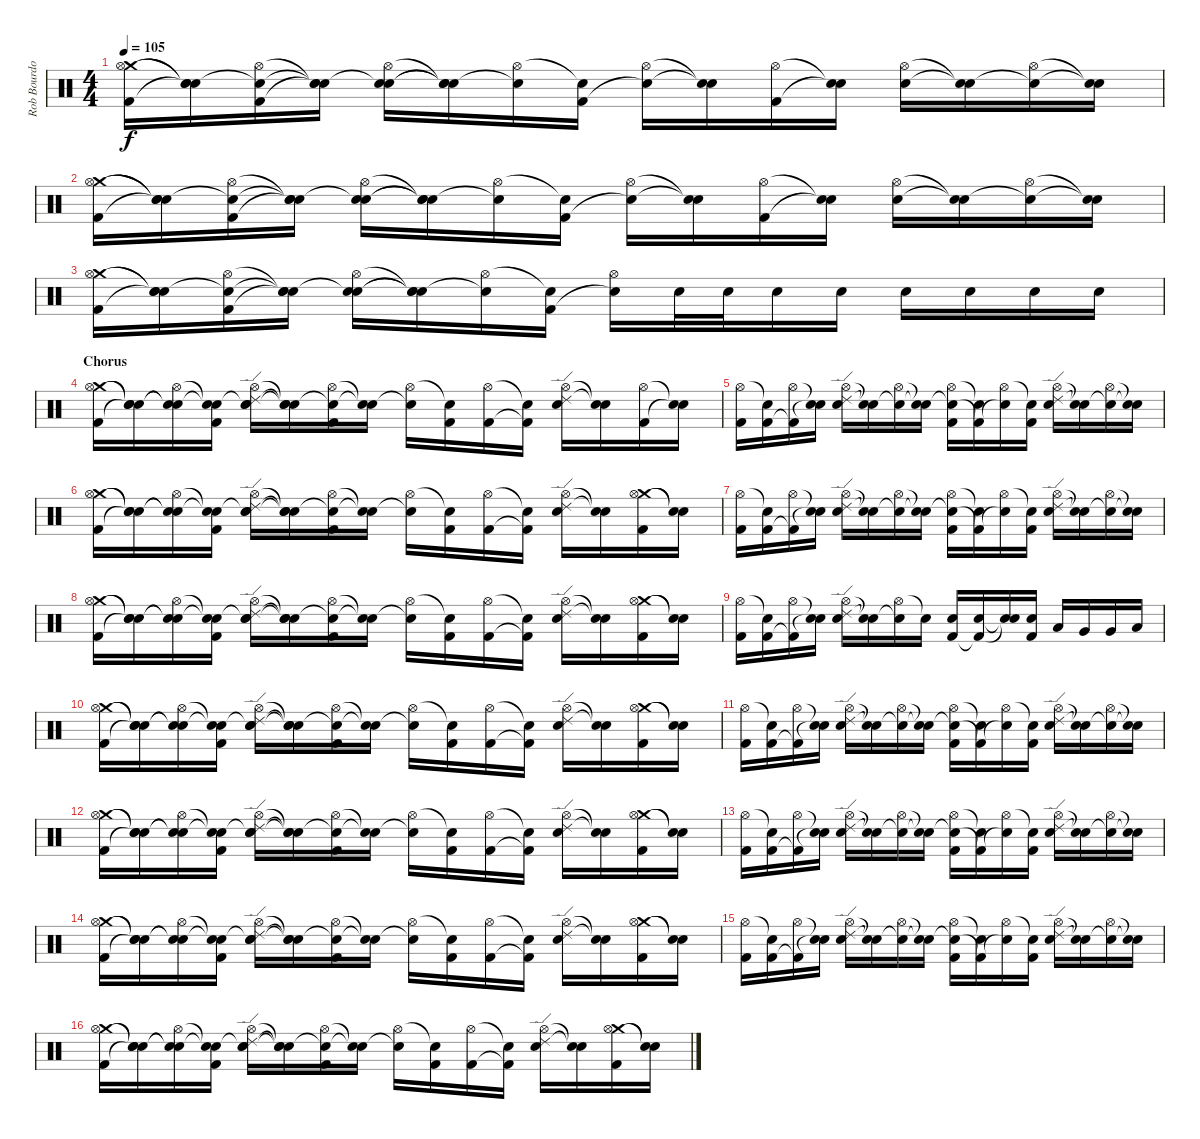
\track ("Rob Bourdon" "Rob Bourdo") {instrument percussion}
\staff {score}
\articulation defaults
\ts (4 4)
\tempo 105
\clef neutral
\ks c
("Crash medium (hit)" "Hi-Hat (open)" "Kick (hit) 2").16{dy f} ("Snare (hit)"{t} "Snare (hit)"{t} "Snare (hit)"{t}).16 ("Snare (hit)"{t} "Hi-Hat (open)" "Kick (hit) 2").16 ("Snare (hit)"{t} "Snare (hit)"{t} "Snare (hit)"{t}).16 ("Snare (hit)"{t} "Hi-Hat (open)" "Electric Snare (hit)").16 ("Snare (hit)"{t} "Snare (hit)"{t} "Snare (hit)"{t}).16 ("Hi-Hat (open)" "Snare (hit)"{t}).16 ("Snare (hit)"{t} "Kick (hit) 2").16 ("Hi-Hat (open)" "Snare (hit)"{t}).16 ("Snare (hit)"{t} "Snare (hit)"{t}).16 ("Hi-Hat (open)" "Kick (hit) 2").16 ("Snare (hit)"{t} "Snare (hit)"{t}).16 ("Hi-Hat (open)" "Electric Snare (hit)").16 ("Snare (hit)"{t} "Snare (hit)"{t}).16 ("Hi-Hat (open)" "Snare (hit)"{t}).16 ("Snare (hit)"{t} "Snare (hit)"{t}).16 |
("Crash medium (hit)" "Hi-Hat (open)" "Kick (hit) 2").16 ("Snare (hit)"{t} "Snare (hit)"{t} "Snare (hit)"{t}).16 ("Snare (hit)"{t} "Hi-Hat (open)" "Kick (hit) 2").16 ("Snare (hit)"{t} "Snare (hit)"{t} "Snare (hit)"{t}).16 ("Snare (hit)"{t} "Hi-Hat (open)" "Electric Snare (hit)").16 ("Snare (hit)"{t} "Snare (hit)"{t} "Snare (hit)"{t}).16 ("Hi-Hat (open)" "Snare (hit)"{t}).16 ("Snare (hit)"{t} "Kick (hit) 2").16 ("Hi-Hat (open)" "Snare (hit)"{t}).16 ("Snare (hit)"{t} "Snare (hit)"{t}).16 ("Hi-Hat (open)" "Kick (hit) 2").16 ("Snare (hit)"{t} "Snare (hit)"{t}).16 ("Hi-Hat (open)" "Electric Snare (hit)").16 ("Snare (hit)"{t} "Snare (hit)"{t}).16 ("Hi-Hat (open)" "Snare (hit)"{t}).16 ("Snare (hit)"{t} "Snare (hit)"{t}).16 |
("Crash medium (hit)" "Hi-Hat (open)" "Kick (hit) 2").16 ("Snare (hit)"{t} "Snare (hit)"{t} "Snare (hit)"{t}).16 ("Snare (hit)"{t} "Hi-Hat (open)" "Kick (hit) 2").16 ("Snare (hit)"{t} "Snare (hit)"{t} "Snare (hit)"{t}).16 ("Snare (hit)"{t} "Hi-Hat (open)" "Electric Snare (hit)").16 ("Snare (hit)"{t} "Snare (hit)"{t} "Snare (hit)"{t}).16 ("Hi-Hat (open)" "Snare (hit)"{t}).16 ("Snare (hit)"{t} "Kick (hit) 2").16 ("Hi-Hat (open)" "Snare (hit)"{t}).16 "Electric Snare (hit)".32 "Electric Snare (hit)".32 "Electric Snare (hit)".16 "Electric Snare (hit)".16 "Electric Snare (hit)".16 "Electric Snare (hit)".16 "Electric Snare (hit)".16 "Electric Snare (hit)".16 |
\section ("" "Chorus")
("Crash medium (hit)" "Hi-Hat (open)" "Kick (hit) 2").16 ("Snare (hit)"{t} "Snare (hit)"{t} "Snare (hit)"{t}).16 ("Snare (hit)"{t} "Hi-Hat (open)" "Snare (hit)"{t}).16 ("Snare (hit)"{t} "Snare (hit)"{t} "Kick (hit) 2").16 ("Snare (hit)"{t} "Hi-Hat (open)" "Ride (edge) 2" "Electric Snare (hit)").16 ("Snare (hit)"{t} "Snare (hit)"{t} "Snare (hit)"{t}).16 ("Snare (hit)"{t} "Hi-Hat (open)" "Kick (hit) 2").16 ("Snare (hit)"{t} "Snare (hit)"{t}).16 ("Hi-Hat (open)" "Snare (hit)"{t}).16 ("Snare (hit)"{t} "Kick (hit) 2").16 ("Hi-Hat (open)" "Kick (hit) 2").16 ("Snare (hit)"{t} "Kick (hit) 2"{t}).16 ("Hi-Hat (open)" "Ride (edge) 2" "Electric Snare (hit)").16 ("Snare (hit)"{t} "Snare (hit)"{t}).16 ("Hi-Hat (open)" "Kick (hit) 2").16 ("Snare (hit)"{t} "Snare (hit)"{t}).16 |
("Hi-Hat (open)" "Kick (hit) 2").16 ("Snare (hit)"{t} "Kick (hit) 2").16 ("Hi-Hat (open)" "Kick (hit) 2"{t}).16 ("Snare (hit)"{t} "Snare (hit)"{t}).16 ("Hi-Hat (open)" "Ride (edge) 2" "Electric Snare (hit)").16 ("Snare (hit)"{t} "Snare (hit)"{t}).16 ("Hi-Hat (open)" "Snare (hit)"{t}).16 ("Snare (hit)"{t} "Snare (hit)"{t}).16 ("Hi-Hat (open)" "Snare (hit)"{t} "Kick (hit) 2").16 ("Snare (hit)"{t} "Kick (hit) 2"{t}).16 ("Hi-Hat (open)" "Snare (hit)"{t}).16 ("Snare (hit)"{t} "Kick (hit) 2").16 ("Hi-Hat (open)" "Ride (edge) 2" "Electric Snare (hit)").16 ("Snare (hit)"{t} "Snare (hit)"{t}).16 ("Hi-Hat (open)" "Snare (hit)"{t}).16 ("Snare (hit)"{t} "Snare (hit)"{t}).16 |
("Crash medium (hit)" "Hi-Hat (open)" "Kick (hit) 2").16 ("Snare (hit)"{t} "Snare (hit)"{t} "Snare (hit)"{t}).16 ("Snare (hit)"{t} "Hi-Hat (open)" "Snare (hit)"{t}).16 ("Snare (hit)"{t} "Snare (hit)"{t} "Kick (hit) 2").16 ("Snare (hit)"{t} "Hi-Hat (open)" "Ride (edge) 2" "Electric Snare (hit)").16 ("Snare (hit)"{t} "Snare (hit)"{t} "Snare (hit)"{t}).16 ("Snare (hit)"{t} "Hi-Hat (open)" "Kick (hit) 2").16 ("Snare (hit)"{t} "Snare (hit)"{t}).16 ("Hi-Hat (open)" "Snare (hit)"{t}).16 ("Snare (hit)"{t} "Kick (hit) 2").16 ("Hi-Hat (open)" "Kick (hit) 2").16 ("Snare (hit)"{t} "Kick (hit) 2"{t}).16 ("Hi-Hat (open)" "Ride (edge) 2" "Electric Snare (hit)").16 ("Snare (hit)"{t} "Snare (hit)"{t}).16 ("Crash medium (hit)" "Hi-Hat (open)" "Kick (hit) 2").16 ("Snare (hit)"{t} "Snare (hit)"{t}).16 |
("Hi-Hat (open)" "Kick (hit) 2").16 ("Snare (hit)"{t} "Kick (hit) 2").16 ("Hi-Hat (open)" "Kick (hit) 2"{t}).16 ("Snare (hit)"{t} "Snare (hit)"{t}).16 ("Hi-Hat (open)" "Ride (edge) 2" "Electric Snare (hit)").16 ("Snare (hit)"{t} "Snare (hit)"{t}).16 ("Hi-Hat (open)" "Snare (hit)"{t}).16 ("Snare (hit)"{t} "Snare (hit)"{t}).16 ("Hi-Hat (open)" "Snare (hit)"{t} "Kick (hit) 2").16 ("Snare (hit)"{t} "Kick (hit) 2"{t}).16 ("Hi-Hat (open)" "Snare (hit)"{t}).16 ("Snare (hit)"{t} "Kick (hit) 2").16 ("Hi-Hat (open)" "Ride (edge) 2" "Electric Snare (hit)").16 ("Snare (hit)"{t} "Snare (hit)"{t}).16 ("Hi-Hat (open)" "Snare (hit)"{t}).16 ("Snare (hit)"{t} "Snare (hit)"{t}).16 |
("Crash medium (hit)" "Hi-Hat (open)" "Kick (hit) 2").16 ("Snare (hit)"{t} "Snare (hit)"{t} "Snare (hit)"{t}).16 ("Snare (hit)"{t} "Hi-Hat (open)" "Snare (hit)"{t}).16 ("Snare (hit)"{t} "Snare (hit)"{t} "Kick (hit) 2").16 ("Snare (hit)"{t} "Hi-Hat (open)" "Ride (edge) 2" "Electric Snare (hit)").16 ("Snare (hit)"{t} "Snare (hit)"{t} "Snare (hit)"{t}).16 ("Snare (hit)"{t} "Hi-Hat (open)" "Kick (hit) 2").16 ("Snare (hit)"{t} "Snare (hit)"{t}).16 ("Hi-Hat (open)" "Snare (hit)"{t}).16 ("Snare (hit)"{t} "Kick (hit) 2").16 ("Hi-Hat (open)" "Kick (hit) 2").16 ("Snare (hit)"{t} "Kick (hit) 2"{t}).16 ("Hi-Hat (open)" "Ride (edge) 2" "Electric Snare (hit)").16 ("Snare (hit)"{t} "Snare (hit)"{t}).16 ("Crash medium (hit)" "Hi-Hat (open)" "Kick (hit) 2").16 ("Snare (hit)"{t} "Snare (hit)"{t}).16 |
("Hi-Hat (open)" "Kick (hit) 2").16 ("Snare (hit)"{t} "Kick (hit) 2").16 ("Hi-Hat (open)" "Kick (hit) 2"{t}).16 ("Snare (hit)"{t} "Snare (hit)"{t}).16 ("Hi-Hat (open)" "Ride (edge) 2" "Electric Snare (hit)").16 ("Snare (hit)"{t} "Snare (hit)"{t}).16 ("Hi-Hat (open)" "Snare (hit)"{t}).16 "Snare (hit)"{t}.16 ("Electric Snare (hit)" "Kick (hit) 2").16 ("Electric Snare (hit)" "Kick (hit) 2"{t}).16 ("Electric Snare (hit)"{t} "Snare (hit)"{t}).16 ("Electric Snare (hit)" "Kick (hit) 2").16 "Low Tom (hit)".16 "Very Low Tom (hit)".16 "Very Low Tom (hit)".16 "Low Floor Tom (hit)".16 |
("Crash medium (hit)" "Hi-Hat (open)" "Kick (hit) 2").16 ("Snare (hit)"{t} "Snare (hit)"{t} "Snare (hit)"{t}).16 ("Snare (hit)"{t} "Hi-Hat (open)" "Snare (hit)"{t}).16 ("Snare (hit)"{t} "Snare (hit)"{t} "Kick (hit) 2").16 ("Snare (hit)"{t} "Hi-Hat (open)" "Ride (edge) 2" "Electric Snare (hit)").16 ("Snare (hit)"{t} "Snare (hit)"{t} "Snare (hit)"{t}).16 ("Snare (hit)"{t} "Hi-Hat (open)" "Kick (hit) 2").16 ("Snare (hit)"{t} "Snare (hit)"{t}).16 ("Hi-Hat (open)" "Snare (hit)"{t}).16 ("Snare (hit)"{t} "Kick (hit) 2").16 ("Hi-Hat (open)" "Kick (hit) 2").16 ("Snare (hit)"{t} "Kick (hit) 2"{t}).16 ("Hi-Hat (open)" "Ride (edge) 2" "Electric Snare (hit)").16 ("Snare (hit)"{t} "Snare (hit)"{t}).16 ("Crash medium (hit)" "Hi-Hat (open)" "Kick (hit) 2").16 ("Snare (hit)"{t} "Snare (hit)"{t}).16 |
("Hi-Hat (open)" "Kick (hit) 2").16 ("Snare (hit)"{t} "Kick (hit) 2").16 ("Hi-Hat (open)" "Kick (hit) 2"{t}).16 ("Snare (hit)"{t} "Snare (hit)"{t}).16 ("Hi-Hat (open)" "Ride (edge) 2" "Electric Snare (hit)").16 ("Snare (hit)"{t} "Snare (hit)"{t}).16 ("Hi-Hat (open)" "Snare (hit)"{t}).16 ("Snare (hit)"{t} "Snare (hit)"{t}).16 ("Hi-Hat (open)" "Snare (hit)"{t} "Kick (hit) 2").16 ("Snare (hit)"{t} "Kick (hit) 2"{t}).16 ("Hi-Hat (open)" "Snare (hit)"{t}).16 ("Snare (hit)"{t} "Kick (hit) 2").16 ("Hi-Hat (open)" "Ride (edge) 2" "Electric Snare (hit)").16 ("Snare (hit)"{t} "Snare (hit)"{t}).16 ("Hi-Hat (open)" "Snare (hit)"{t}).16 ("Snare (hit)"{t} "Snare (hit)"{t}).16 |
("Crash medium (hit)" "Hi-Hat (open)" "Kick (hit) 2").16 ("Snare (hit)"{t} "Snare (hit)"{t} "Snare (hit)"{t}).16 ("Snare (hit)"{t} "Hi-Hat (open)" "Snare (hit)"{t}).16 ("Snare (hit)"{t} "Snare (hit)"{t} "Kick (hit) 2").16 ("Snare (hit)"{t} "Hi-Hat (open)" "Ride (edge) 2" "Electric Snare (hit)").16 ("Snare (hit)"{t} "Snare (hit)"{t} "Snare (hit)"{t}).16 ("Snare (hit)"{t} "Hi-Hat (open)" "Kick (hit) 2").16 ("Snare (hit)"{t} "Snare (hit)"{t}).16 ("Hi-Hat (open)" "Snare (hit)"{t}).16 ("Snare (hit)"{t} "Kick (hit) 2").16 ("Hi-Hat (open)" "Kick (hit) 2").16 ("Snare (hit)"{t} "Kick (hit) 2"{t}).16 ("Hi-Hat (open)" "Ride (edge) 2" "Electric Snare (hit)").16 ("Snare (hit)"{t} "Snare (hit)"{t}).16 ("Crash medium (hit)" "Hi-Hat (open)" "Kick (hit) 2").16 ("Snare (hit)"{t} "Snare (hit)"{t}).16 |
("Hi-Hat (open)" "Kick (hit) 2").16 ("Snare (hit)"{t} "Kick (hit) 2").16 ("Hi-Hat (open)" "Kick (hit) 2"{t}).16 ("Snare (hit)"{t} "Snare (hit)"{t}).16 ("Hi-Hat (open)" "Ride (edge) 2" "Electric Snare (hit)").16 ("Snare (hit)"{t} "Snare (hit)"{t}).16 ("Hi-Hat (open)" "Snare (hit)"{t}).16 ("Snare (hit)"{t} "Snare (hit)"{t}).16 ("Hi-Hat (open)" "Snare (hit)"{t} "Kick (hit) 2").16 ("Snare (hit)"{t} "Kick (hit) 2"{t}).16 ("Hi-Hat (open)" "Snare (hit)"{t}).16 ("Snare (hit)"{t} "Kick (hit) 2").16 ("Hi-Hat (open)" "Ride (edge) 2" "Electric Snare (hit)").16 ("Snare (hit)"{t} "Snare (hit)"{t}).16 ("Hi-Hat (open)" "Snare (hit)"{t}).16 ("Snare (hit)"{t} "Snare (hit)"{t}).16 |
("Crash medium (hit)" "Hi-Hat (open)" "Kick (hit) 2").16 ("Snare (hit)"{t} "Snare (hit)"{t} "Snare (hit)"{t}).16 ("Snare (hit)"{t} "Hi-Hat (open)" "Snare (hit)"{t}).16 ("Snare (hit)"{t} "Snare (hit)"{t} "Kick (hit) 2").16 ("Snare (hit)"{t} "Hi-Hat (open)" "Ride (edge) 2" "Electric Snare (hit)").16 ("Snare (hit)"{t} "Snare (hit)"{t} "Snare (hit)"{t}).16 ("Snare (hit)"{t} "Hi-Hat (open)" "Kick (hit) 2").16 ("Snare (hit)"{t} "Snare (hit)"{t}).16 ("Hi-Hat (open)" "Snare (hit)"{t}).16 ("Snare (hit)"{t} "Kick (hit) 2").16 ("Hi-Hat (open)" "Kick (hit) 2").16 ("Snare (hit)"{t} "Kick (hit) 2"{t}).16 ("Hi-Hat (open)" "Ride (edge) 2" "Electric Snare (hit)").16 ("Snare (hit)"{t} "Snare (hit)"{t}).16 ("Crash medium (hit)" "Hi-Hat (open)" "Kick (hit) 2").16 ("Snare (hit)"{t} "Snare (hit)"{t}).16 |
("Hi-Hat (open)" "Kick (hit) 2").16 ("Snare (hit)"{t} "Kick (hit) 2").16 ("Hi-Hat (open)" "Kick (hit) 2"{t}).16 ("Snare (hit)"{t} "Snare (hit)"{t}).16 ("Hi-Hat (open)" "Ride (edge) 2" "Electric Snare (hit)").16 ("Snare (hit)"{t} "Snare (hit)"{t}).16 ("Hi-Hat (open)" "Snare (hit)"{t}).16 ("Snare (hit)"{t} "Snare (hit)"{t}).16 ("Hi-Hat (open)" "Snare (hit)"{t} "Kick (hit) 2").16 ("Snare (hit)"{t} "Kick (hit) 2"{t}).16 ("Hi-Hat (open)" "Snare (hit)"{t}).16 ("Snare (hit)"{t} "Kick (hit) 2").16 ("Hi-Hat (open)" "Ride (edge) 2" "Electric Snare (hit)").16 ("Snare (hit)"{t} "Snare (hit)"{t}).16 ("Hi-Hat (open)" "Snare (hit)"{t}).16 ("Snare (hit)"{t} "Snare (hit)"{t}).16 |
("Crash medium (hit)" "Hi-Hat (open)" "Kick (hit) 2").16 ("Snare (hit)"{t} "Snare (hit)"{t} "Snare (hit)"{t}).16 ("Snare (hit)"{t} "Hi-Hat (open)" "Snare (hit)"{t}).16 ("Snare (hit)"{t} "Snare (hit)"{t} "Kick (hit) 2").16 ("Snare (hit)"{t} "Hi-Hat (open)" "Ride (edge) 2" "Electric Snare (hit)").16 ("Snare (hit)"{t} "Snare (hit)"{t} "Snare (hit)"{t}).16 ("Snare (hit)"{t} "Hi-Hat (open)" "Kick (hit) 2").16 ("Snare (hit)"{t} "Snare (hit)"{t}).16 ("Hi-Hat (open)" "Snare (hit)"{t}).16 ("Snare (hit)"{t} "Kick (hit) 2").16 ("Hi-Hat (open)" "Kick (hit) 2").16 ("Snare (hit)"{t} "Kick (hit) 2"{t}).16 ("Hi-Hat (open)" "Ride (edge) 2" "Electric Snare (hit)").16 ("Snare (hit)"{t} "Snare (hit)"{t}).16 ("Crash medium (hit)" "Hi-Hat (open)" "Kick (hit) 2").16 ("Snare (hit)"{t} "Snare (hit)"{t}).16
